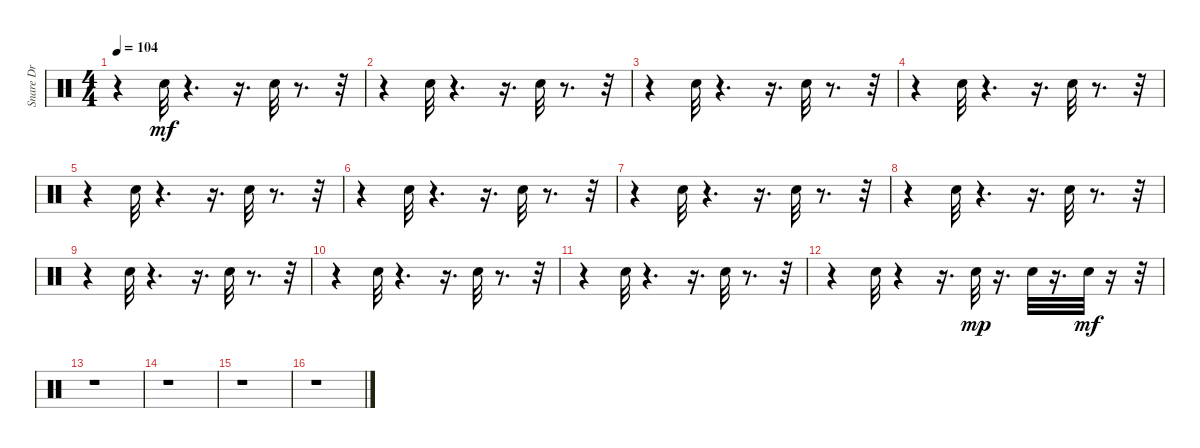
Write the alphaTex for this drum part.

\track ("  Snare Drum 1" "  Snare Dr") {instrument percussion}
\staff {score}
\articulation defaults
\ts (4 4)
\tempo 104
\clef neutral
\ks c
r.4{dy mf} "Snare (hit) 2".32 r.4{d} r.16{d} "Snare (hit) 2".32 r.8{d} r.32 |
r.4 "Snare (hit) 2".32 r.4{d} r.16{d} "Snare (hit) 2".32 r.8{d} r.32 |
r.4 "Snare (hit) 2".32 r.4{d} r.16{d} "Snare (hit) 2".32 r.8{d} r.32 |
r.4 "Snare (hit) 2".32 r.4{d} r.16{d} "Snare (hit) 2".32 r.8{d} r.32 |
r.4 "Snare (hit) 2".32 r.4{d} r.16{d} "Snare (hit) 2".32 r.8{d} r.32 |
r.4 "Snare (hit) 2".32 r.4{d} r.16{d} "Snare (hit) 2".32 r.8{d} r.32 |
r.4 "Snare (hit) 2".32 r.4{d} r.16{d} "Snare (hit) 2".32 r.8{d} r.32 |
r.4 "Snare (hit) 2".32 r.4{d} r.16{d} "Snare (hit) 2".32 r.8{d} r.32 |
r.4 "Snare (hit) 2".32 r.4{d} r.16{d} "Snare (hit) 2".32 r.8{d} r.32 |
r.4 "Snare (hit) 2".32 r.4{d} r.16{d} "Snare (hit) 2".32 r.8{d} r.32 |
r.4 "Snare (hit) 2".32 r.4{d} r.16{d} "Snare (hit) 2".32 r.8{d} r.32 |
r.4 "Snare (hit) 2".32 r.4 r.16{d} "Snare (hit) 2".32{dy mp} r.16{d} "Snare (hit) 2".32 r.16{d} "Snare (hit) 2".32{dy mf} r.16 r.32 |
r.1 |
r.1 |
r.1 |
r.1
